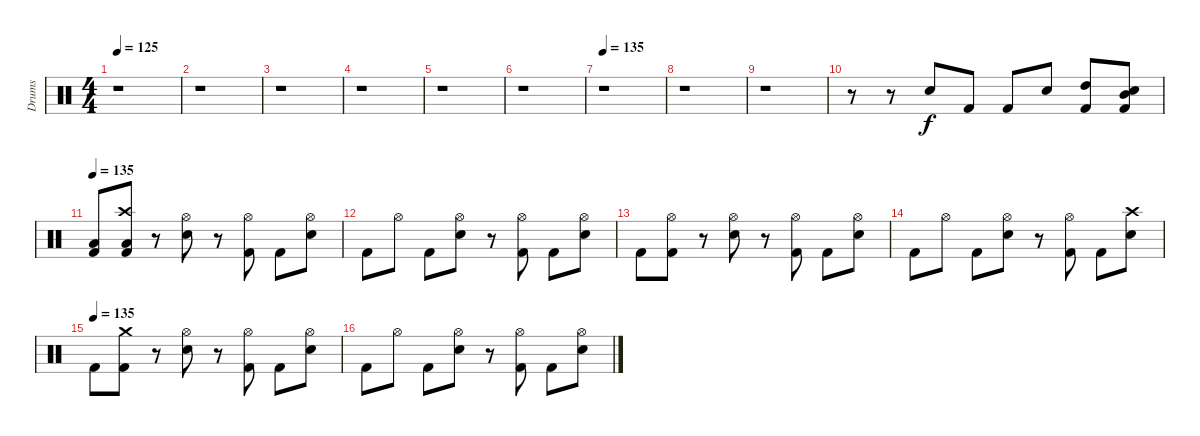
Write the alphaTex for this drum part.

\track ("Drums" "Drums") {instrument percussion}
\staff {score}
\articulation defaults
\ts (4 4)
\tempo 125
\clef neutral
\ks c
r.1{dy f} |
r.1 |
r.1 |
r.1 |
r.1 |
r.1 |
\tempo 135
r.1 |
r.1 |
r.1 |
r.8 r.8 "Snare (hit) 2".8 "Kick (hit) 2".8 "Kick (hit) 2".8 "Snare (hit) 2".8 ("High Tom (hit)" "Kick (hit) 2").8 ("Mid Tom (hit)" "Snare (hit) 2" "Kick (hit) 2").8 |
\tempo 135
("Low Tom (hit)" "Kick (hit) 2").8 ("Crash high (hit)" "Low Floor Tom (hit)" "Kick (hit) 2").8 r.8 ("Hi-Hat (open)" "Snare (hit) 2").8 r.8 ("Hi-Hat (open)" "Kick (hit) 2").8 "Kick (hit) 2".8 ("Hi-Hat (open)" "Snare (hit) 2").8 |
"Kick (hit) 2".8 "Hi-Hat (open)".8 "Kick (hit) 2".8 ("Hi-Hat (open)" "Snare (hit) 2").8 r.8 ("Hi-Hat (open)" "Kick (hit) 2").8 "Kick (hit) 2".8 ("Hi-Hat (open)" "Snare (hit) 2").8 |
"Kick (hit) 2".8 ("Hi-Hat (open)" "Kick (hit) 2").8 r.8 ("Hi-Hat (open)" "Snare (hit) 2").8 r.8 ("Hi-Hat (open)" "Kick (hit) 2").8 "Kick (hit) 2".8 ("Hi-Hat (open)" "Snare (hit) 2").8 |
"Kick (hit) 2".8 "Hi-Hat (open)".8 "Kick (hit) 2".8 ("Hi-Hat (open)" "Snare (hit) 2").8 r.8 ("Hi-Hat (open)" "Kick (hit) 2").8 "Kick (hit) 2".8 ("Crash high (hit)" "Snare (hit) 2").8 |
\tempo (135)
"Kick (hit) 2".8 ("Crash medium (hit)" "Kick (hit) 2").8 r.8 ("Hi-Hat (open)" "Snare (hit) 2").8 r.8 ("Hi-Hat (open)" "Kick (hit) 2").8 "Kick (hit) 2".8 ("Hi-Hat (open)" "Snare (hit) 2").8 |
"Kick (hit) 2".8 "Hi-Hat (open)".8 "Kick (hit) 2".8 ("Hi-Hat (open)" "Snare (hit) 2").8 r.8 ("Hi-Hat (open)" "Kick (hit) 2").8 "Kick (hit) 2".8 ("Hi-Hat (open)" "Snare (hit) 2").8
